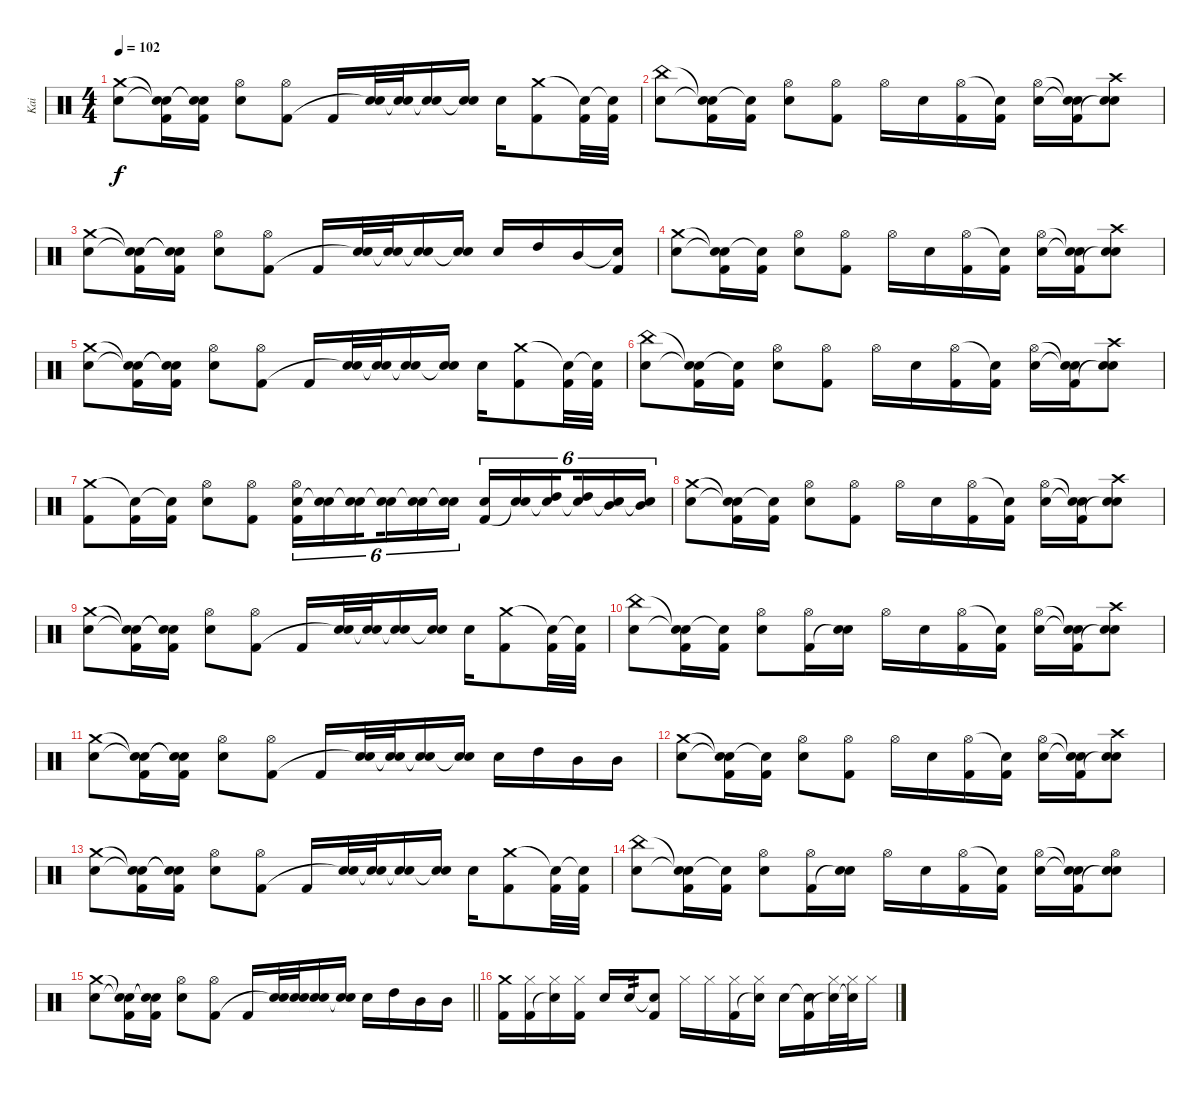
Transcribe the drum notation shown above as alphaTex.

\track ("Kai" "Kai") {instrument percussion}
\staff {score}
\articulation defaults
\ts (4 4)
\tempo 102
\clef neutral
\ks c
("Crash medium (hit)" "Snare (hit) 2").8{dy f} ("Snare (hit)"{t} "Snare (hit)"{t} "Kick (hit) 2").16 ("Snare (hit)"{t} "Snare (hit)"{t} "Kick (hit) 2").16 ("Hi-Hat (open)" "Snare (hit) 2").8 ("Hi-Hat (open)" "Kick (hit) 2").8 "Kick (hit) 2".16 ("Snare (hit) 2" "Snare (hit)"{t}).32 ("Snare (hit) 2" "Snare (hit)"{t}).32 ("Snare (hit) 2" "Snare (hit)"{t}).16 ("Snare (hit) 2" "Snare (hit)"{t}).16 "Snare (hit) 2".16 ("Crash medium (hit)" "Kick (hit) 2").8 ("Snare (hit)"{t} "Kick (hit) 2").32 ("Snare (hit)"{t} "Kick (hit) 2").32 |
("China (hit)" "Snare (hit) 2").8 ("Snare (hit)"{t} "Snare (hit)"{t} "Kick (hit) 2").16 ("Snare (hit)"{t} "Kick (hit) 2").16 ("Hi-Hat (open)" "Snare (hit) 2").8 ("Hi-Hat (open)" "Kick (hit) 2").8 "Hi-Hat (open)".16 "Snare (hit) 2".16 ("Hi-Hat (open)" "Kick (hit) 2").16 ("Snare (hit)"{t} "Kick (hit) 2").16 ("Hi-Hat (open)" "Snare (hit) 2").16 ("Snare (hit)"{t} "Snare (hit)"{t} "Kick (hit) 2").16 ("Crash high (hit)" "Snare (hit) 2" "Snare (hit)"{t}).8 |
("Crash medium (hit)" "Snare (hit) 2").8 ("Snare (hit)"{t} "Snare (hit)"{t} "Kick (hit) 2").16 ("Snare (hit)"{t} "Snare (hit)"{t} "Kick (hit) 2").16 ("Hi-Hat (open)" "Snare (hit) 2").8 ("Hi-Hat (open)" "Kick (hit) 2").8 "Kick (hit) 2".16 ("Snare (hit) 2" "Snare (hit)"{t}).32 ("Snare (hit) 2" "Snare (hit)"{t}).32 ("Snare (hit) 2" "Snare (hit)"{t}).16 ("Snare (hit) 2" "Snare (hit)"{t}).16 "Snare (hit) 2".16 "High Tom (hit)".16 "Mid Tom (hit)".16 ("Snare (hit)"{t} "Kick (hit) 2").16 |
("Crash medium (hit)" "Snare (hit) 2").8 ("Snare (hit)"{t} "Snare (hit)"{t} "Kick (hit) 2").16 ("Snare (hit)"{t} "Kick (hit) 2").16 ("Hi-Hat (open)" "Snare (hit) 2").8 ("Hi-Hat (open)" "Kick (hit) 2").8 "Hi-Hat (open)".16 "Snare (hit) 2".16 ("Hi-Hat (open)" "Kick (hit) 2").16 ("Snare (hit)"{t} "Kick (hit) 2").16 ("Hi-Hat (open)" "Snare (hit) 2").16 ("Snare (hit)"{t} "Snare (hit)"{t} "Kick (hit) 2").16 ("Crash high (hit)" "Snare (hit) 2" "Snare (hit)"{t}).8 |
("Crash medium (hit)" "Snare (hit) 2").8 ("Snare (hit)"{t} "Snare (hit)"{t} "Kick (hit) 2").16 ("Snare (hit)"{t} "Snare (hit)"{t} "Kick (hit) 2").16 ("Hi-Hat (open)" "Snare (hit) 2").8 ("Hi-Hat (open)" "Kick (hit) 2").8 "Kick (hit) 2".16 ("Snare (hit) 2" "Snare (hit)"{t}).32 ("Snare (hit) 2" "Snare (hit)"{t}).32 ("Snare (hit) 2" "Snare (hit)"{t}).16 ("Snare (hit) 2" "Snare (hit)"{t}).16 "Snare (hit) 2".16 ("Crash medium (hit)" "Kick (hit) 2").8 ("Snare (hit)"{t} "Kick (hit) 2").32 ("Snare (hit)"{t} "Kick (hit) 2").32 |
("China (hit)" "Snare (hit) 2").8 ("Snare (hit)"{t} "Snare (hit)"{t} "Kick (hit) 2").16 ("Snare (hit)"{t} "Kick (hit) 2").16 ("Hi-Hat (open)" "Snare (hit) 2").8 ("Hi-Hat (open)" "Kick (hit) 2").8 "Hi-Hat (open)".16 "Snare (hit) 2".16 ("Hi-Hat (open)" "Kick (hit) 2").16 ("Snare (hit)"{t} "Kick (hit) 2").16 ("Hi-Hat (open)" "Snare (hit) 2").16 ("Snare (hit)"{t} "Snare (hit)"{t} "Kick (hit) 2").16 ("Crash high (hit)" "Snare (hit) 2" "Snare (hit)"{t}).8 |
("Crash medium (hit)" "Kick (hit) 2").8 ("Snare (hit)"{t} "Kick (hit) 2").16 ("Snare (hit)"{t} "Kick (hit) 2").16 ("Hi-Hat (open)" "Snare (hit) 2").8 ("Hi-Hat (open)" "Kick (hit) 2").8 ("Hi-Hat (open)" "Snare (hit) 2" "Kick (hit) 2").16{tu (6 4)} ("Snare (hit) 2" "Snare (hit)"{t}).16{tu (6 4)} ("Snare (hit) 2" "Snare (hit)"{t}).16{tu (6 4) beam splitsecondary} ("Snare (hit) 2" "Snare (hit)"{t}).16{tu (6 4)} ("Snare (hit) 2" "Snare (hit)"{t}).16{tu (6 4)} ("Snare (hit) 2" "Snare (hit)"{t}).16{tu (6 4)} ("Snare (hit) 2" "Kick (hit) 2").16{tu (6 4)} ("Snare (hit) 2" "Snare (hit)"{t}).16{tu (6 4)} ("High Tom (hit)" "Snare (hit)"{t}).16{tu (6 4) beam splitsecondary} ("High Tom (hit)" "Snare (hit)"{t}).16{tu (6 4)} ("Mid Tom (hit)" "Snare (hit)"{t}).16{tu (6 4)} ("Mid Tom (hit)" "Snare (hit)"{t}).16{tu (6 4)} |
("Crash medium (hit)" "Snare (hit) 2").8 ("Snare (hit)"{t} "Snare (hit)"{t} "Kick (hit) 2").16 ("Snare (hit)"{t} "Kick (hit) 2").16 ("Hi-Hat (open)" "Snare (hit) 2").8 ("Hi-Hat (open)" "Kick (hit) 2").8 "Hi-Hat (open)".16 "Snare (hit) 2".16 ("Hi-Hat (open)" "Kick (hit) 2").16 ("Snare (hit)"{t} "Kick (hit) 2").16 ("Hi-Hat (open)" "Snare (hit) 2").16 ("Snare (hit)"{t} "Snare (hit)"{t} "Kick (hit) 2").16 ("Crash high (hit)" "Snare (hit) 2" "Snare (hit)"{t}).8 |
("Crash medium (hit)" "Snare (hit) 2").8 ("Snare (hit)"{t} "Snare (hit)"{t} "Kick (hit) 2").16 ("Snare (hit)"{t} "Snare (hit)"{t} "Kick (hit) 2").16 ("Hi-Hat (open)" "Snare (hit) 2").8 ("Hi-Hat (open)" "Kick (hit) 2").8 "Kick (hit) 2".16 ("Snare (hit) 2" "Snare (hit)"{t}).32 ("Snare (hit) 2" "Snare (hit)"{t}).32 ("Snare (hit) 2" "Snare (hit)"{t}).16 ("Snare (hit) 2" "Snare (hit)"{t}).16 "Snare (hit) 2".16 ("Crash medium (hit)" "Kick (hit) 2").8 ("Snare (hit)"{t} "Kick (hit) 2").32 ("Snare (hit)"{t} "Kick (hit) 2").32 |
("China (hit)" "Snare (hit) 2").8 ("Snare (hit)"{t} "Snare (hit)"{t} "Kick (hit) 2").16 ("Snare (hit)"{t} "Kick (hit) 2").16 ("Hi-Hat (open)" "Snare (hit) 2").8 ("Hi-Hat (open)" "Kick (hit) 2").16 ("Snare (hit) 2" "Snare (hit)"{t}).16 "Hi-Hat (open)".16 "Snare (hit) 2".16 ("Hi-Hat (open)" "Kick (hit) 2").16 ("Snare (hit)"{t} "Kick (hit) 2").16 ("Hi-Hat (open)" "Snare (hit) 2").16 ("Snare (hit)"{t} "Snare (hit)"{t} "Kick (hit) 2").16 ("Crash high (hit)" "Snare (hit) 2" "Snare (hit)"{t}).8 |
("Crash medium (hit)" "Snare (hit) 2").8 ("Snare (hit)"{t} "Snare (hit)"{t} "Kick (hit) 2").16 ("Snare (hit)"{t} "Snare (hit)"{t} "Kick (hit) 2").16 ("Hi-Hat (open)" "Snare (hit) 2").8 ("Hi-Hat (open)" "Kick (hit) 2").8 "Kick (hit) 2".16 ("Snare (hit) 2" "Snare (hit)"{t}).32 ("Snare (hit) 2" "Snare (hit)"{t}).32 ("Snare (hit) 2" "Snare (hit)"{t}).16 ("Snare (hit) 2" "Snare (hit)"{t}).16 "Snare (hit) 2".16 "High Tom (hit)".16 "Mid Tom (hit)".16 "Mid Tom (hit)".16 |
("Crash medium (hit)" "Snare (hit) 2").8 ("Snare (hit)"{t} "Snare (hit)"{t} "Kick (hit) 2").16 ("Snare (hit)"{t} "Kick (hit) 2").16 ("Hi-Hat (open)" "Snare (hit) 2").8 ("Hi-Hat (open)" "Kick (hit) 2").8 "Hi-Hat (open)".16 "Snare (hit) 2".16 ("Hi-Hat (open)" "Kick (hit) 2").16 ("Snare (hit)"{t} "Kick (hit) 2").16 ("Hi-Hat (open)" "Snare (hit) 2").16 ("Snare (hit)"{t} "Snare (hit)"{t} "Kick (hit) 2").16 ("Crash high (hit)" "Snare (hit) 2" "Snare (hit)"{t}).8 |
("Crash medium (hit)" "Snare (hit) 2").8 ("Snare (hit)"{t} "Snare (hit)"{t} "Kick (hit) 2").16 ("Snare (hit)"{t} "Snare (hit)"{t} "Kick (hit) 2").16 ("Hi-Hat (open)" "Snare (hit) 2").8 ("Hi-Hat (open)" "Kick (hit) 2").8 "Kick (hit) 2".16 ("Snare (hit) 2" "Snare (hit)"{t}).32 ("Snare (hit) 2" "Snare (hit)"{t}).32 ("Snare (hit) 2" "Snare (hit)"{t}).16 ("Snare (hit) 2" "Snare (hit)"{t}).16 "Snare (hit) 2".16 ("Crash medium (hit)" "Kick (hit) 2").8 ("Snare (hit)"{t} "Kick (hit) 2").32 ("Snare (hit)"{t} "Kick (hit) 2").32 |
("China (hit)" "Snare (hit) 2").8 ("Snare (hit)"{t} "Snare (hit)"{t} "Kick (hit) 2").16 ("Snare (hit)"{t} "Kick (hit) 2").16 ("Hi-Hat (open)" "Snare (hit) 2").8 ("Hi-Hat (open)" "Kick (hit) 2").16 ("Snare (hit) 2" "Snare (hit)"{t}).16 "Hi-Hat (open)".16 "Snare (hit) 2".16 ("Hi-Hat (open)" "Kick (hit) 2").16 ("Snare (hit)"{t} "Kick (hit) 2").16 ("Hi-Hat (open)" "Snare (hit) 2").16 ("Snare (hit)"{t} "Snare (hit)"{t} "Kick (hit) 2").16 ("Hi-Hat (open)" "Snare (hit) 2" "Snare (hit)"{t}).8 |
\barLineRight lightlight
("Crash medium (hit)" "Snare (hit) 2").8 ("Snare (hit)"{t} "Snare (hit)"{t} "Kick (hit) 2").16 ("Snare (hit)"{t} "Snare (hit)"{t} "Kick (hit) 2").16 ("Hi-Hat (open)" "Snare (hit) 2").8 ("Hi-Hat (open)" "Kick (hit) 2").8 "Kick (hit) 2".16 ("Snare (hit) 2" "Snare (hit)"{t}).32 ("Snare (hit) 2" "Snare (hit)"{t}).32 ("Snare (hit) 2" "Snare (hit)"{t}).16 ("Snare (hit) 2" "Snare (hit)"{t}).16 "Snare (hit) 2".16 "High Tom (hit)".16 "Mid Tom (hit)".16 "Mid Tom (hit)".16 |
("Crash medium (hit)" "Kick (hit) 2").16 ("Hi-Hat (closed)" "Kick (hit) 2").16 ("Hi-Hat (closed)" "Snare (hit)"{t}).16 ("Hi-Hat (closed)" "Kick (hit) 2").16 "Snare (hit) 2".16 "Snare (hit) 2".16{tp 2} ("Snare (hit)"{t} "Kick (hit) 2").8 "Hi-Hat (closed)".16 "Hi-Hat (closed)".16 ("Hi-Hat (closed)" "Kick (hit) 2").16 ("Hi-Hat (closed)" "Snare (hit)"{t}).16 "Snare (hit) 2".16 ("Snare (hit)"{t} "Kick (hit) 2").16 ("Hi-Hat (closed)" "Snare (hit)"{t}).32 ("Hi-Hat (closed)" "Snare (hit)"{t}).32 "Hi-Hat (closed)".16
